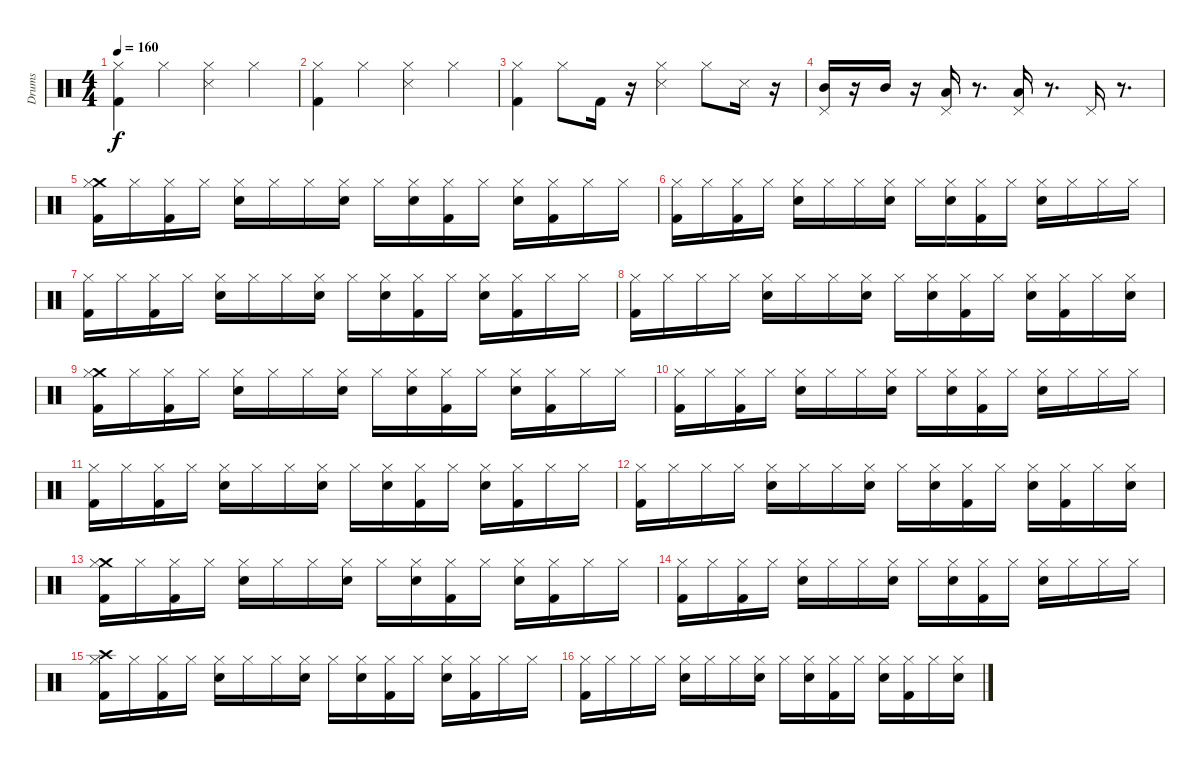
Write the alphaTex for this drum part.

\track ("Drums" "Drums") {instrument percussion}
\staff {score}
\articulation defaults
\ts (4 4)
\tempo 160
\clef neutral
\ks c
("Kick (hit) 2" "Hi-Hat (closed)").4{dy f} "Hi-Hat (closed)".4 ("Snare (side stick) 3" "Hi-Hat (closed)").4 "Hi-Hat (closed)".4 |
("Kick (hit) 2" "Hi-Hat (closed)").4 "Hi-Hat (closed)".4 ("Snare (side stick) 3" "Hi-Hat (closed)").4 "Hi-Hat (closed)".4 |
("Kick (hit) 2" "Hi-Hat (closed)").4 "Hi-Hat (closed)".8 "Kick (hit) 2".16 r.16 ("Snare (side stick) 3" "Hi-Hat (closed)").4 "Hi-Hat (closed)".8 "Snare (side stick) 3".16 r.16 |
("Pedal Hi-Hat (hit)" "Mid Tom (hit)").16 r.16 "Mid Tom (hit)".16 r.16 ("Pedal Hi-Hat (hit)" "Low Tom (hit)").16 r.8{d} ("Pedal Hi-Hat (hit)" "Low Floor Tom (hit)").16 r.8{d} "Pedal Hi-Hat (hit)".16 r.8{d} |
("Crash medium (hit)" "Kick (hit) 2" "Hi-Hat (closed)").16 "Hi-Hat (closed)".16 ("Kick (hit) 2" "Hi-Hat (closed)").16 "Hi-Hat (closed)".16 ("Hi-Hat (closed)" "Electric Snare (hit)").16 "Hi-Hat (closed)".16 "Hi-Hat (closed)".16 ("Electric Snare (hit)" "Hi-Hat (closed)").16 "Hi-Hat (closed)".16 ("Electric Snare (hit)" "Hi-Hat (closed)").16 ("Kick (hit) 2" "Hi-Hat (closed)").16 "Hi-Hat (closed)".16 ("Electric Snare (hit)" "Hi-Hat (closed)").16 ("Kick (hit) 2" "Hi-Hat (closed)").16 "Hi-Hat (closed)".16 "Hi-Hat (closed)".16 |
("Kick (hit) 2" "Hi-Hat (closed)").16 "Hi-Hat (closed)".16 ("Kick (hit) 2" "Hi-Hat (closed)").16 "Hi-Hat (closed)".16 ("Hi-Hat (closed)" "Electric Snare (hit)").16 "Hi-Hat (closed)".16 "Hi-Hat (closed)".16 ("Electric Snare (hit)" "Hi-Hat (closed)").16 "Hi-Hat (closed)".16 ("Electric Snare (hit)" "Hi-Hat (closed)").16 ("Kick (hit) 2" "Hi-Hat (closed)").16 "Hi-Hat (closed)".16 ("Electric Snare (hit)" "Hi-Hat (closed)").16 "Hi-Hat (closed)".16 "Hi-Hat (closed)".16 "Hi-Hat (closed)".16 |
("Kick (hit) 2" "Hi-Hat (closed)").16 "Hi-Hat (closed)".16 ("Kick (hit) 2" "Hi-Hat (closed)").16 "Hi-Hat (closed)".16 ("Hi-Hat (closed)" "Electric Snare (hit)").16 "Hi-Hat (closed)".16 "Hi-Hat (closed)".16 ("Electric Snare (hit)" "Hi-Hat (closed)").16 "Hi-Hat (closed)".16 ("Electric Snare (hit)" "Hi-Hat (closed)").16 ("Kick (hit) 2" "Hi-Hat (closed)").16 "Hi-Hat (closed)".16 ("Electric Snare (hit)" "Hi-Hat (closed)").16 ("Kick (hit) 2" "Hi-Hat (closed)").16 "Hi-Hat (closed)".16 "Hi-Hat (closed)".16 |
("Kick (hit) 2" "Hi-Hat (closed)").16 "Hi-Hat (closed)".16 "Hi-Hat (closed)".16 "Hi-Hat (closed)".16 ("Hi-Hat (closed)" "Electric Snare (hit)").16 "Hi-Hat (closed)".16 "Hi-Hat (closed)".16 ("Electric Snare (hit)" "Hi-Hat (closed)").16 "Hi-Hat (closed)".16 ("Electric Snare (hit)" "Hi-Hat (closed)").16 ("Kick (hit) 2" "Hi-Hat (closed)").16 "Hi-Hat (closed)".16 ("Electric Snare (hit)" "Hi-Hat (closed)").16 ("Kick (hit) 2" "Hi-Hat (closed)").16 "Hi-Hat (closed)".16 ("Electric Snare (hit)" "Hi-Hat (closed)").16 |
("Crash medium (hit)" "Kick (hit) 2" "Hi-Hat (closed)").16 "Hi-Hat (closed)".16 ("Kick (hit) 2" "Hi-Hat (closed)").16 "Hi-Hat (closed)".16 ("Hi-Hat (closed)" "Electric Snare (hit)").16 "Hi-Hat (closed)".16 "Hi-Hat (closed)".16 ("Electric Snare (hit)" "Hi-Hat (closed)").16 "Hi-Hat (closed)".16 ("Electric Snare (hit)" "Hi-Hat (closed)").16 ("Kick (hit) 2" "Hi-Hat (closed)").16 "Hi-Hat (closed)".16 ("Electric Snare (hit)" "Hi-Hat (closed)").16 ("Kick (hit) 2" "Hi-Hat (closed)").16 "Hi-Hat (closed)".16 "Hi-Hat (closed)".16 |
("Kick (hit) 2" "Hi-Hat (closed)").16 "Hi-Hat (closed)".16 ("Kick (hit) 2" "Hi-Hat (closed)").16 "Hi-Hat (closed)".16 ("Hi-Hat (closed)" "Electric Snare (hit)").16 "Hi-Hat (closed)".16 "Hi-Hat (closed)".16 ("Electric Snare (hit)" "Hi-Hat (closed)").16 "Hi-Hat (closed)".16 ("Electric Snare (hit)" "Hi-Hat (closed)").16 ("Kick (hit) 2" "Hi-Hat (closed)").16 "Hi-Hat (closed)".16 ("Electric Snare (hit)" "Hi-Hat (closed)").16 "Hi-Hat (closed)".16 "Hi-Hat (closed)".16 "Hi-Hat (closed)".16 |
("Kick (hit) 2" "Hi-Hat (closed)").16 "Hi-Hat (closed)".16 ("Kick (hit) 2" "Hi-Hat (closed)").16 "Hi-Hat (closed)".16 ("Hi-Hat (closed)" "Electric Snare (hit)").16 "Hi-Hat (closed)".16 "Hi-Hat (closed)".16 ("Electric Snare (hit)" "Hi-Hat (closed)").16 "Hi-Hat (closed)".16 ("Electric Snare (hit)" "Hi-Hat (closed)").16 ("Kick (hit) 2" "Hi-Hat (closed)").16 "Hi-Hat (closed)".16 ("Electric Snare (hit)" "Hi-Hat (closed)").16 ("Kick (hit) 2" "Hi-Hat (closed)").16 "Hi-Hat (closed)".16 "Hi-Hat (closed)".16 |
("Kick (hit) 2" "Hi-Hat (closed)").16 "Hi-Hat (closed)".16 "Hi-Hat (closed)".16 "Hi-Hat (closed)".16 ("Hi-Hat (closed)" "Electric Snare (hit)").16 "Hi-Hat (closed)".16 "Hi-Hat (closed)".16 ("Electric Snare (hit)" "Hi-Hat (closed)").16 "Hi-Hat (closed)".16 ("Electric Snare (hit)" "Hi-Hat (closed)").16 ("Kick (hit) 2" "Hi-Hat (closed)").16 "Hi-Hat (closed)".16 ("Electric Snare (hit)" "Hi-Hat (closed)").16 ("Kick (hit) 2" "Hi-Hat (closed)").16 "Hi-Hat (closed)".16 ("Electric Snare (hit)" "Hi-Hat (closed)").16 |
("Crash medium (hit)" "Kick (hit) 2" "Hi-Hat (closed)").16 "Hi-Hat (closed)".16 ("Kick (hit) 2" "Hi-Hat (closed)").16 "Hi-Hat (closed)".16 ("Hi-Hat (closed)" "Electric Snare (hit)").16 "Hi-Hat (closed)".16 "Hi-Hat (closed)".16 ("Electric Snare (hit)" "Hi-Hat (closed)").16 "Hi-Hat (closed)".16 ("Electric Snare (hit)" "Hi-Hat (closed)").16 ("Kick (hit) 2" "Hi-Hat (closed)").16 "Hi-Hat (closed)".16 ("Electric Snare (hit)" "Hi-Hat (closed)").16 ("Kick (hit) 2" "Hi-Hat (closed)").16 "Hi-Hat (closed)".16 "Hi-Hat (closed)".16 |
("Kick (hit) 2" "Hi-Hat (closed)").16 "Hi-Hat (closed)".16 ("Kick (hit) 2" "Hi-Hat (closed)").16 "Hi-Hat (closed)".16 ("Hi-Hat (closed)" "Electric Snare (hit)").16 "Hi-Hat (closed)".16 "Hi-Hat (closed)".16 ("Electric Snare (hit)" "Hi-Hat (closed)").16 "Hi-Hat (closed)".16 ("Electric Snare (hit)" "Hi-Hat (closed)").16 ("Kick (hit) 2" "Hi-Hat (closed)").16 "Hi-Hat (closed)".16 ("Electric Snare (hit)" "Hi-Hat (closed)").16 "Hi-Hat (closed)".16 "Hi-Hat (closed)".16 "Hi-Hat (closed)".16 |
("Crash high (hit)" "Kick (hit) 2" "Hi-Hat (closed)").16 "Hi-Hat (closed)".16 ("Kick (hit) 2" "Hi-Hat (closed)").16 "Hi-Hat (closed)".16 ("Hi-Hat (closed)" "Electric Snare (hit)").16 "Hi-Hat (closed)".16 "Hi-Hat (closed)".16 ("Electric Snare (hit)" "Hi-Hat (closed)").16 "Hi-Hat (closed)".16 ("Electric Snare (hit)" "Hi-Hat (closed)").16 ("Kick (hit) 2" "Hi-Hat (closed)").16 "Hi-Hat (closed)".16 ("Electric Snare (hit)" "Hi-Hat (closed)").16 ("Kick (hit) 2" "Hi-Hat (closed)").16 "Hi-Hat (closed)".16 "Hi-Hat (closed)".16 |
("Kick (hit) 2" "Hi-Hat (closed)").16 "Hi-Hat (closed)".16 "Hi-Hat (closed)".16 "Hi-Hat (closed)".16 ("Hi-Hat (closed)" "Electric Snare (hit)").16 "Hi-Hat (closed)".16 "Hi-Hat (closed)".16 ("Electric Snare (hit)" "Hi-Hat (closed)").16 "Hi-Hat (closed)".16 ("Electric Snare (hit)" "Hi-Hat (closed)").16 ("Kick (hit) 2" "Hi-Hat (closed)").16 "Hi-Hat (closed)".16 ("Electric Snare (hit)" "Hi-Hat (closed)").16 ("Kick (hit) 2" "Hi-Hat (closed)").16 "Hi-Hat (closed)".16 ("Electric Snare (hit)" "Hi-Hat (closed)").16
